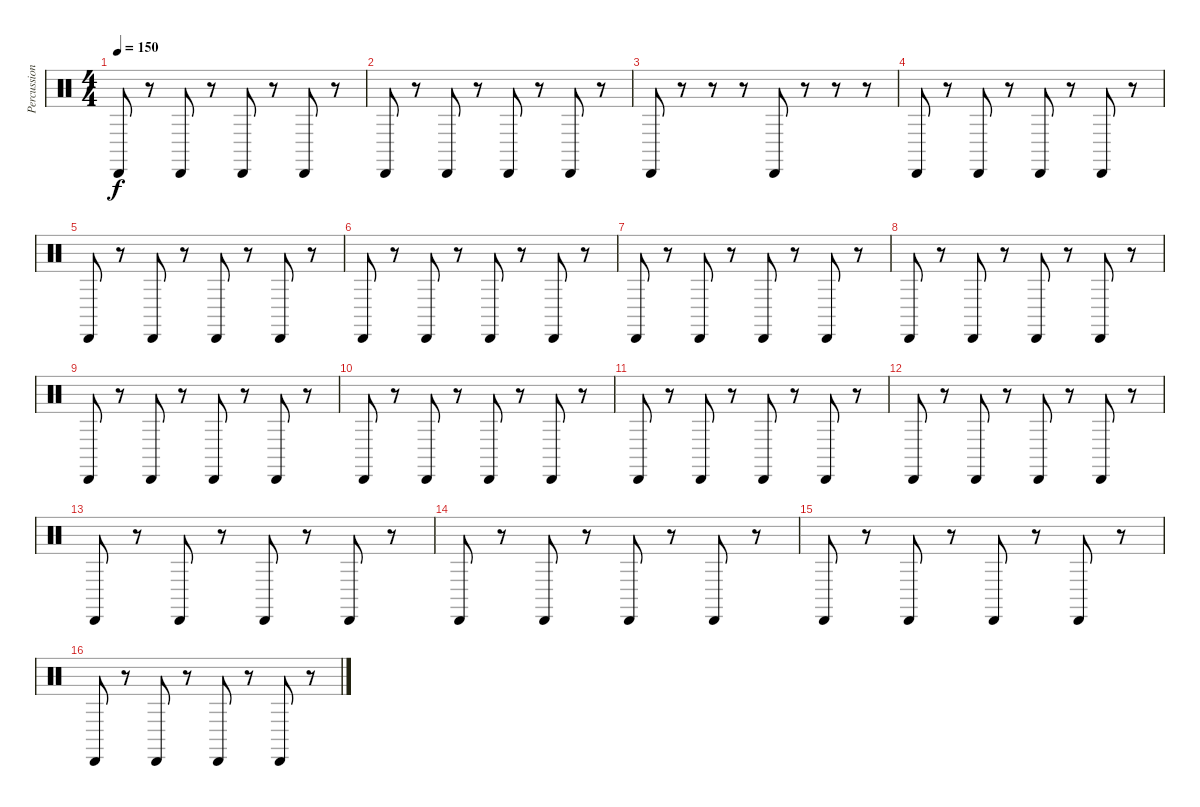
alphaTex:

\track ("Percussion1" "Percussion") {instrument percussion}
\staff {score}
\articulation defaults
\ts (4 4)
\tempo 150
\clef neutral
\ks aminor "Cabasa (hit)".8{dy f}
r.8 "Cabasa (hit)".8 r.8 "Cabasa (hit)".8 r.8 "Cabasa (hit)".8 r.8 |
"Cabasa (hit)".8 r.8 "Cabasa (hit)".8 r.8 "Cabasa (hit)".8 r.8 "Cabasa (hit)".8 r.8 |
"Cabasa (hit)".8 r.8 r.8 r.8 "Cabasa (hit)".8 r.8 r.8 r.8 |
"Cabasa (hit)".8 r.8 "Cabasa (hit)".8 r.8 "Cabasa (hit)".8 r.8 "Cabasa (hit)".8 r.8 |
"Cabasa (hit)".8 r.8 "Cabasa (hit)".8 r.8 "Cabasa (hit)".8 r.8 "Cabasa (hit)".8 r.8 |
"Cabasa (hit)".8 r.8 "Cabasa (hit)".8 r.8 "Cabasa (hit)".8 r.8 "Cabasa (hit)".8 r.8 |
"Cabasa (hit)".8 r.8 "Cabasa (hit)".8 r.8 "Cabasa (hit)".8 r.8 "Cabasa (hit)".8 r.8 |
"Cabasa (hit)".8 r.8 "Cabasa (hit)".8 r.8 "Cabasa (hit)".8 r.8 "Cabasa (hit)".8 r.8 |
"Cabasa (hit)".8 r.8 "Cabasa (hit)".8 r.8 "Cabasa (hit)".8 r.8 "Cabasa (hit)".8 r.8 |
"Cabasa (hit)".8 r.8 "Cabasa (hit)".8 r.8 "Cabasa (hit)".8 r.8 "Cabasa (hit)".8 r.8 |
"Cabasa (hit)".8 r.8 "Cabasa (hit)".8 r.8 "Cabasa (hit)".8 r.8 "Cabasa (hit)".8 r.8 |
"Cabasa (hit)".8 r.8 "Cabasa (hit)".8 r.8 "Cabasa (hit)".8 r.8 "Cabasa (hit)".8 r.8 |
"Cabasa (hit)".8 r.8 "Cabasa (hit)".8 r.8 "Cabasa (hit)".8 r.8 "Cabasa (hit)".8 r.8 |
"Cabasa (hit)".8 r.8 "Cabasa (hit)".8 r.8 "Cabasa (hit)".8 r.8 "Cabasa (hit)".8 r.8 |
"Cabasa (hit)".8 r.8 "Cabasa (hit)".8 r.8 "Cabasa (hit)".8 r.8 "Cabasa (hit)".8 r.8 |
"Cabasa (hit)".8 r.8 "Cabasa (hit)".8 r.8 "Cabasa (hit)".8 r.8 "Cabasa (hit)".8 r.8
